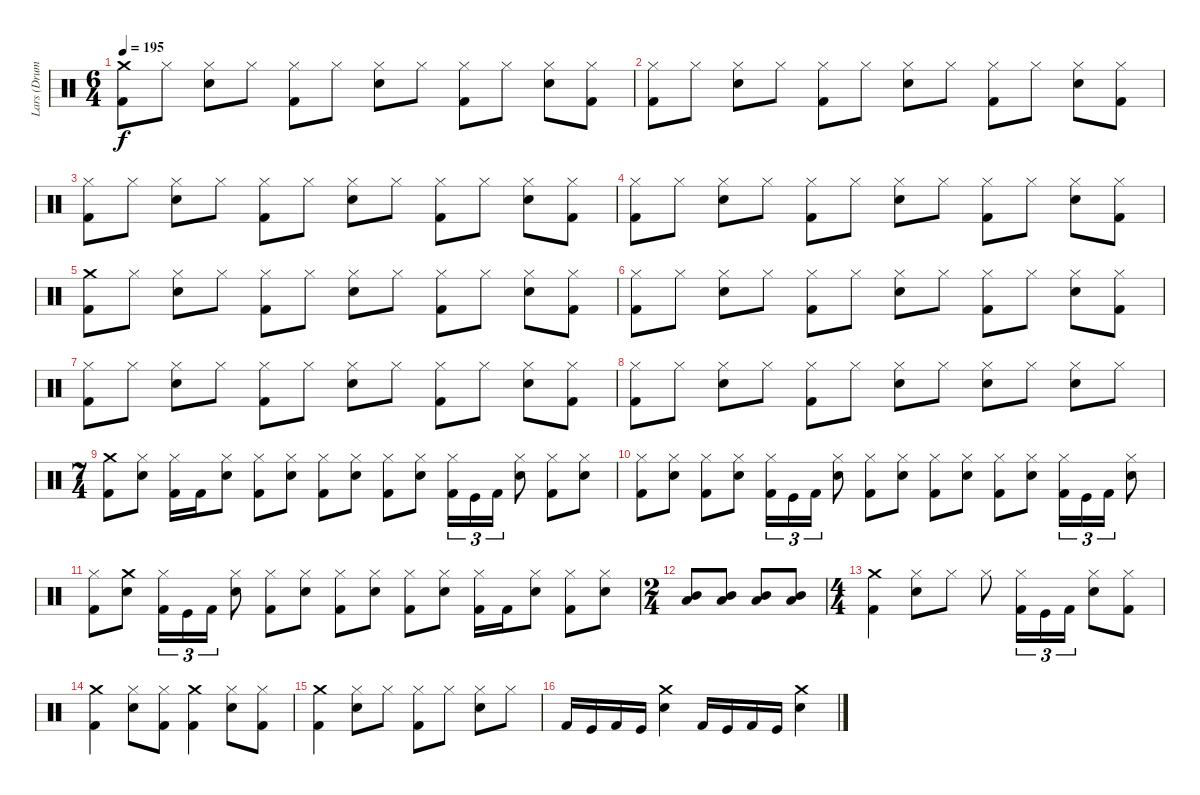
\track ("Lars (Drums)" "Lars (Drum") {instrument percussion}
\staff {score}
\articulation defaults
\ts (6 4)
\tempo 195
\clef neutral
\ks c
("Kick (hit) 2" "Crash medium (hit)").8{dy f} "Hi-Hat (closed)".8 ("Snare (hit) 2" "Hi-Hat (closed)").8 "Hi-Hat (closed)".8 ("Kick (hit) 2" "Hi-Hat (closed)").8 "Hi-Hat (closed)".8 ("Snare (hit) 2" "Hi-Hat (closed)").8 "Hi-Hat (closed)".8 ("Kick (hit) 2" "Hi-Hat (closed)").8 "Hi-Hat (closed)".8 ("Snare (hit) 2" "Hi-Hat (closed)").8 ("Kick (hit) 2" "Hi-Hat (closed)").8 |
("Hi-Hat (closed)" "Kick (hit) 2").8 "Hi-Hat (closed)".8 ("Snare (hit) 2" "Hi-Hat (closed)").8 "Hi-Hat (closed)".8 ("Kick (hit) 2" "Hi-Hat (closed)").8 "Hi-Hat (closed)".8 ("Snare (hit) 2" "Hi-Hat (closed)").8 "Hi-Hat (closed)".8 ("Kick (hit) 2" "Hi-Hat (closed)").8 "Hi-Hat (closed)".8 ("Snare (hit) 2" "Hi-Hat (closed)").8 ("Kick (hit) 2" "Hi-Hat (closed)").8 |
("Hi-Hat (closed)" "Kick (hit) 2").8 "Hi-Hat (closed)".8 ("Snare (hit) 2" "Hi-Hat (closed)").8 "Hi-Hat (closed)".8 ("Kick (hit) 2" "Hi-Hat (closed)").8 "Hi-Hat (closed)".8 ("Snare (hit) 2" "Hi-Hat (closed)").8 "Hi-Hat (closed)".8 ("Kick (hit) 2" "Hi-Hat (closed)").8 "Hi-Hat (closed)".8 ("Snare (hit) 2" "Hi-Hat (closed)").8 ("Kick (hit) 2" "Hi-Hat (closed)").8 |
("Hi-Hat (closed)" "Kick (hit) 2").8 "Hi-Hat (closed)".8 ("Snare (hit) 2" "Hi-Hat (closed)").8 "Hi-Hat (closed)".8 ("Kick (hit) 2" "Hi-Hat (closed)").8 "Hi-Hat (closed)".8 ("Snare (hit) 2" "Hi-Hat (closed)").8 "Hi-Hat (closed)".8 ("Kick (hit) 2" "Hi-Hat (closed)").8 "Hi-Hat (closed)".8 ("Snare (hit) 2" "Hi-Hat (closed)").8 ("Kick (hit) 2" "Hi-Hat (closed)").8 |
("Kick (hit) 2" "Crash medium (hit)").8 "Hi-Hat (closed)".8 ("Snare (hit) 2" "Hi-Hat (closed)").8 "Hi-Hat (closed)".8 ("Kick (hit) 2" "Hi-Hat (closed)").8 "Hi-Hat (closed)".8 ("Snare (hit) 2" "Hi-Hat (closed)").8 "Hi-Hat (closed)".8 ("Kick (hit) 2" "Hi-Hat (closed)").8 "Hi-Hat (closed)".8 ("Snare (hit) 2" "Hi-Hat (closed)").8 ("Kick (hit) 2" "Hi-Hat (closed)").8 |
("Hi-Hat (closed)" "Kick (hit) 2").8 "Hi-Hat (closed)".8 ("Snare (hit) 2" "Hi-Hat (closed)").8 "Hi-Hat (closed)".8 ("Kick (hit) 2" "Hi-Hat (closed)").8 "Hi-Hat (closed)".8 ("Snare (hit) 2" "Hi-Hat (closed)").8 "Hi-Hat (closed)".8 ("Kick (hit) 2" "Hi-Hat (closed)").8 "Hi-Hat (closed)".8 ("Snare (hit) 2" "Hi-Hat (closed)").8 ("Kick (hit) 2" "Hi-Hat (closed)").8 |
("Hi-Hat (closed)" "Kick (hit) 2").8 "Hi-Hat (closed)".8 ("Snare (hit) 2" "Hi-Hat (closed)").8 "Hi-Hat (closed)".8 ("Kick (hit) 2" "Hi-Hat (closed)").8 "Hi-Hat (closed)".8 ("Snare (hit) 2" "Hi-Hat (closed)").8 "Hi-Hat (closed)".8 ("Kick (hit) 2" "Hi-Hat (closed)").8 "Hi-Hat (closed)".8 ("Snare (hit) 2" "Hi-Hat (closed)").8 ("Kick (hit) 2" "Hi-Hat (closed)").8 |
("Hi-Hat (closed)" "Kick (hit) 2").8 "Hi-Hat (closed)".8 ("Snare (hit) 2" "Hi-Hat (closed)").8 "Hi-Hat (closed)".8 ("Kick (hit) 2" "Hi-Hat (closed)").8 "Hi-Hat (closed)".8 ("Snare (hit) 2" "Hi-Hat (closed)").8 "Hi-Hat (closed)".8 ("Snare (hit) 2" "Hi-Hat (closed)").8 "Hi-Hat (closed)".8 ("Snare (hit) 2" "Hi-Hat (closed)").8 "Hi-Hat (closed)".8 |
\ts (7 4)
("Crash medium (hit)" "Kick (hit) 2").8 ("Snare (hit) 2" "Hi-Hat (closed)").8 ("Hi-Hat (closed)" "Kick (hit) 2").16 "Kick (hit) 2".16 ("Snare (hit) 2" "Hi-Hat (closed)").8 ("Hi-Hat (closed)" "Kick (hit) 2").8 ("Snare (hit) 2" "Hi-Hat (closed)").8 ("Hi-Hat (closed)" "Kick (hit) 2").8 ("Snare (hit) 2" "Hi-Hat (closed)").8 ("Hi-Hat (closed)" "Kick (hit) 2").8 ("Snare (hit) 2" "Hi-Hat (closed)").8 ("Hi-Hat (closed)" "Kick (hit) 2").16{tu (3 2)} "Kick (hit)".16{tu (3 2)} "Kick (hit) 2".16{tu (3 2)} ("Snare (hit) 2" "Hi-Hat (closed)").8 ("Hi-Hat (closed)" "Kick (hit) 2").8 ("Snare (hit) 2" "Hi-Hat (closed)").8 |
("Hi-Hat (closed)" "Kick (hit) 2").8 ("Snare (hit) 2" "Hi-Hat (closed)").8 ("Hi-Hat (closed)" "Kick (hit) 2").8 ("Snare (hit) 2" "Hi-Hat (closed)").8 ("Hi-Hat (closed)" "Kick (hit) 2").16{tu (3 2)} "Kick (hit)".16{tu (3 2)} "Kick (hit) 2".16{tu (3 2)} ("Snare (hit) 2" "Hi-Hat (closed)").8 ("Hi-Hat (closed)" "Kick (hit) 2").8 ("Snare (hit) 2" "Hi-Hat (closed)").8 ("Hi-Hat (closed)" "Kick (hit) 2").8 ("Snare (hit) 2" "Hi-Hat (closed)").8 ("Kick (hit) 2" "Hi-Hat (closed)").8 ("Snare (hit) 2" "Hi-Hat (closed)").8 ("Kick (hit) 2" "Hi-Hat (closed)").16{tu (3 2)} "Kick (hit)".16{tu (3 2)} "Kick (hit) 2".16{tu (3 2)} ("Snare (hit) 2" "Hi-Hat (closed)").8 |
("Kick (hit) 2" "Hi-Hat (closed)").8 ("Crash medium (hit)" "Snare (hit) 2").8 ("Kick (hit) 2" "Hi-Hat (closed)").16{tu (3 2)} "Kick (hit)".16{tu (3 2)} "Kick (hit) 2".16{tu (3 2)} ("Snare (hit) 2" "Hi-Hat (closed)").8 ("Hi-Hat (closed)" "Kick (hit) 2").8 ("Hi-Hat (closed)" "Snare (hit) 2").8 ("Hi-Hat (closed)" "Kick (hit) 2").8 ("Snare (hit) 2" "Hi-Hat (closed)").8 ("Hi-Hat (closed)" "Kick (hit) 2").8 ("Snare (hit) 2" "Hi-Hat (closed)").8 ("Hi-Hat (closed)" "Kick (hit) 2").16 "Kick (hit) 2".16 ("Snare (hit) 2" "Hi-Hat (closed)").8 ("Hi-Hat (closed)" "Kick (hit) 2").8 ("Snare (hit) 2" "Hi-Hat (closed)").8 |
\ts (2 4)
("Mid Tom (hit)" "Low Tom (hit)").8 ("Mid Tom (hit)" "Low Tom (hit)").8 ("Mid Tom (hit)" "Low Tom (hit)").8 ("Mid Tom (hit)" "Low Tom (hit)").8 |
\ts (4 4)
("Kick (hit) 2" "Crash medium (hit)").4 ("Snare (hit) 2" "Hi-Hat (closed)").8 "Hi-Hat (closed)".8 "Hi-Hat (closed)".8 ("Kick (hit) 2" "Hi-Hat (closed)").16{tu (3 2)} "Kick (hit)".16{tu (3 2)} "Kick (hit) 2".16{tu (3 2)} ("Snare (hit) 2" "Hi-Hat (closed)").8 ("Kick (hit) 2" "Hi-Hat (closed)").8 |
("Kick (hit) 2" "Crash medium (hit)").4 ("Hi-Hat (closed)" "Snare (hit) 2").8 ("Kick (hit) 2" "Hi-Hat (closed)").8 ("Crash medium (hit)" "Kick (hit) 2").4 ("Hi-Hat (closed)" "Snare (hit) 2").8 ("Kick (hit) 2" "Hi-Hat (closed)").8 |
("Kick (hit) 2" "Crash medium (hit)").4 ("Hi-Hat (closed)" "Snare (hit) 2").8 "Hi-Hat (closed)".8 ("Hi-Hat (closed)" "Kick (hit) 2").8 "Hi-Hat (closed)".8 ("Snare (hit) 2" "Hi-Hat (closed)").8 "Hi-Hat (closed)".8 |
"Kick (hit) 2".16 "Kick (hit)".16 "Kick (hit) 2".16 "Kick (hit)".16 ("Crash medium (hit)" "Snare (hit) 2").4 "Kick (hit) 2".16 "Kick (hit)".16 "Kick (hit) 2".16 "Kick (hit)".16 ("Snare (hit) 2" "Crash medium (hit)").4
